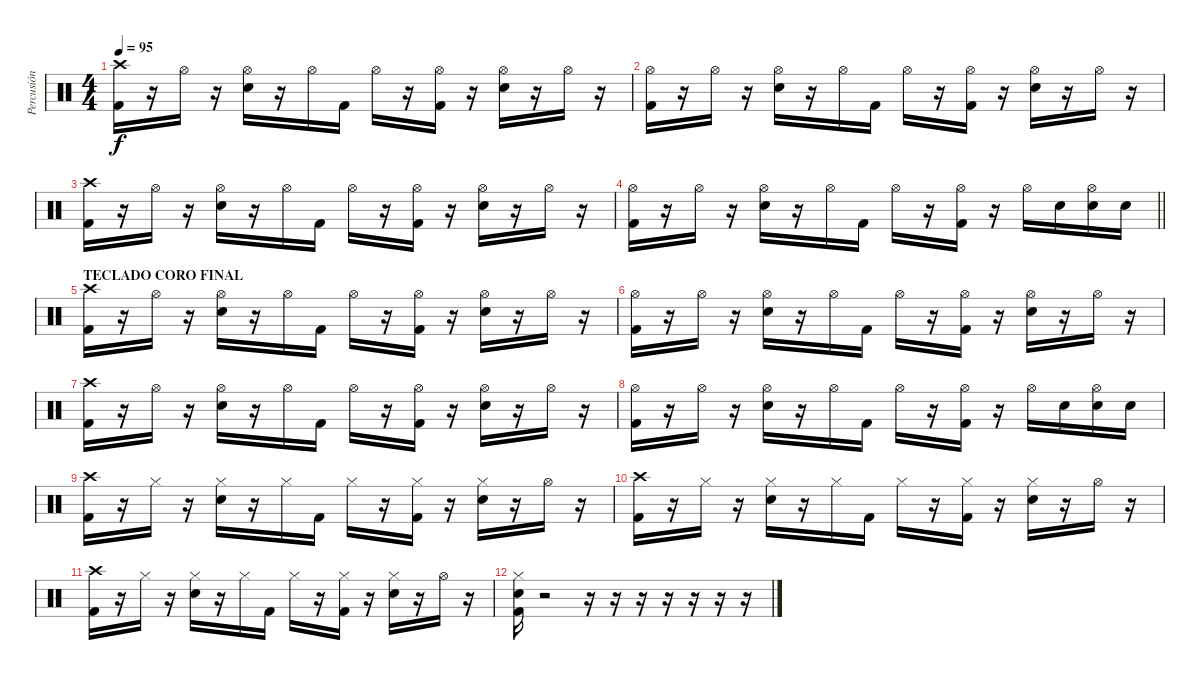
\track ("Percusión" "Percusión") {instrument percussion}
\staff {score}
\articulation defaults
\ts (4 4)
\section ("" "")
\tempo 95
\clef neutral
\ks c
("Crash high (hit)" "Kick (hit) 2").16{dy f} r.16 "Hi-Hat (open)".16 r.16 ("Hi-Hat (open)" "Snare (hit) 2").16 r.16 "Hi-Hat (open)".16 "Kick (hit) 2".16 "Hi-Hat (open)".16 r.16 ("Hi-Hat (open)" "Kick (hit) 2").16 r.16 ("Hi-Hat (open)" "Snare (hit) 2").16 r.16 "Hi-Hat (open)".16 r.16 |
("Hi-Hat (open)" "Kick (hit) 2").16 r.16 "Hi-Hat (open)".16 r.16 ("Hi-Hat (open)" "Snare (hit) 2").16 r.16 "Hi-Hat (open)".16 "Kick (hit) 2".16 "Hi-Hat (open)".16 r.16 ("Hi-Hat (open)" "Kick (hit) 2").16 r.16 ("Hi-Hat (open)" "Snare (hit) 2").16 r.16 "Hi-Hat (open)".16 r.16 |
("Crash high (hit)" "Kick (hit) 2").16 r.16 "Hi-Hat (open)".16 r.16 ("Hi-Hat (open)" "Snare (hit) 2").16 r.16 "Hi-Hat (open)".16 "Kick (hit) 2".16 "Hi-Hat (open)".16 r.16 ("Hi-Hat (open)" "Kick (hit) 2").16 r.16 ("Hi-Hat (open)" "Snare (hit) 2").16 r.16 "Hi-Hat (open)".16 r.16 |
\barLineRight lightlight
("Hi-Hat (open)" "Kick (hit) 2").16 r.16 "Hi-Hat (open)".16 r.16 ("Hi-Hat (open)" "Snare (hit) 2").16 r.16 "Hi-Hat (open)".16 "Kick (hit) 2".16 "Hi-Hat (open)".16 r.16 ("Hi-Hat (open)" "Kick (hit) 2").16 r.16 "Hi-Hat (open)".16 "Snare (hit) 2".16 ("Hi-Hat (open)" "Snare (hit) 2").16 "Snare (hit) 2".16 |
\section ("" "TECLADO CORO FINAL")
("Crash high (hit)" "Kick (hit) 2").16 r.16 "Hi-Hat (open)".16 r.16 ("Hi-Hat (open)" "Snare (hit) 2").16 r.16 "Hi-Hat (open)".16 "Kick (hit) 2".16 "Hi-Hat (open)".16 r.16 ("Hi-Hat (open)" "Kick (hit) 2").16 r.16 ("Hi-Hat (open)" "Snare (hit) 2").16 r.16 "Hi-Hat (open)".16 r.16 |
("Hi-Hat (open)" "Kick (hit) 2").16 r.16 "Hi-Hat (open)".16 r.16 ("Hi-Hat (open)" "Snare (hit) 2").16 r.16 "Hi-Hat (open)".16 "Kick (hit) 2".16 "Hi-Hat (open)".16 r.16 ("Hi-Hat (open)" "Kick (hit) 2").16 r.16 ("Hi-Hat (open)" "Snare (hit) 2").16 r.16 "Hi-Hat (open)".16 r.16 |
("Crash high (hit)" "Kick (hit) 2").16 r.16 "Hi-Hat (open)".16 r.16 ("Hi-Hat (open)" "Snare (hit) 2").16 r.16 "Hi-Hat (open)".16 "Kick (hit) 2".16 "Hi-Hat (open)".16 r.16 ("Hi-Hat (open)" "Kick (hit) 2").16 r.16 ("Hi-Hat (open)" "Snare (hit) 2").16 r.16 "Hi-Hat (open)".16 r.16 |
("Hi-Hat (open)" "Kick (hit) 2").16 r.16 "Hi-Hat (open)".16 r.16 ("Hi-Hat (open)" "Snare (hit) 2").16 r.16 "Hi-Hat (open)".16 "Kick (hit) 2".16 "Hi-Hat (open)".16 r.16 ("Hi-Hat (open)" "Kick (hit) 2").16 r.16 "Hi-Hat (open)".16 "Snare (hit) 2".16 ("Hi-Hat (open)" "Snare (hit) 2").16 "Snare (hit) 2".16 |
("Crash high (hit)" "Kick (hit) 2").16 r.16 "Hi-Hat (closed)".16 r.16 ("Hi-Hat (closed)" "Snare (hit) 2").16 r.16 "Hi-Hat (closed)".16 "Kick (hit) 2".16 "Hi-Hat (closed)".16 r.16 ("Hi-Hat (closed)" "Kick (hit) 2").16 r.16 ("Hi-Hat (closed)" "Snare (hit) 2").16 r.16 "Hi-Hat (open)".16 r.16 |
("Crash high (hit)" "Kick (hit) 2").16 r.16 "Hi-Hat (closed)".16 r.16 ("Hi-Hat (closed)" "Snare (hit) 2").16 r.16 "Hi-Hat (closed)".16 "Kick (hit) 2".16 "Hi-Hat (closed)".16 r.16 ("Hi-Hat (closed)" "Kick (hit) 2").16 r.16 ("Hi-Hat (closed)" "Snare (hit) 2").16 r.16 "Hi-Hat (open)".16 r.16 |
("Crash high (hit)" "Kick (hit) 2").16 r.16 "Hi-Hat (closed)".16 r.16 ("Hi-Hat (closed)" "Snare (hit) 2").16 r.16 "Hi-Hat (closed)".16 "Kick (hit) 2".16 "Hi-Hat (closed)".16 r.16 ("Hi-Hat (closed)" "Kick (hit) 2").16 r.16 ("Hi-Hat (closed)" "Snare (hit) 2").16 r.16 "Hi-Hat (open)".16 r.16 |
("Snare (hit) 2" "Hi-Hat (closed)" "Kick (hit) 2").16 r.2 r.16 r.16 r.16 r.16 r.16 r.16 r.16
